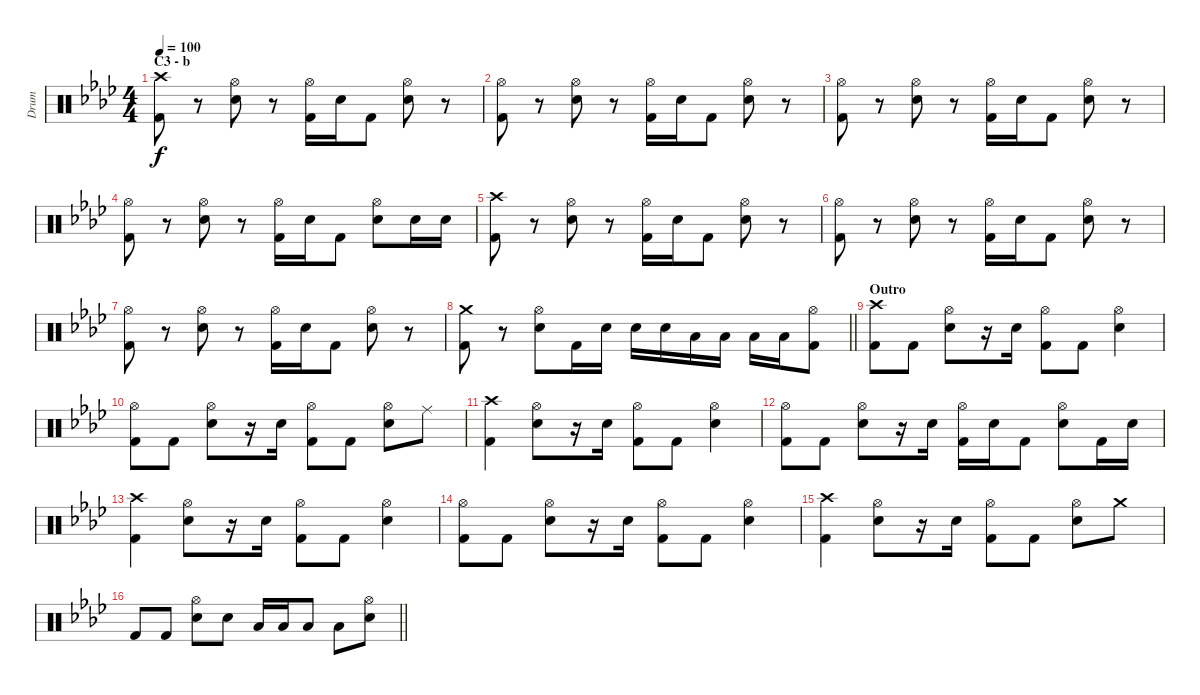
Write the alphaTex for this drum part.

\track ("Drum" "Drum") {instrument percussion}
\staff {score}
\articulation defaults
\ts (4 4)
\section ("" "C3 - b")
\tempo 100
\clef neutral
\ks ab
("Crash high (hit)" "Kick (hit) 2").8{dy f} r.8 ("Hi-Hat (open)" "Snare (hit) 2").8 r.8 ("Hi-Hat (open)" "Kick (hit) 2").16 "Snare (hit) 2".16 "Kick (hit) 2".8 ("Hi-Hat (open)" "Snare (hit) 2").8 r.8 |
("Hi-Hat (open)" "Kick (hit) 2").8 r.8 ("Hi-Hat (open)" "Snare (hit) 2").8 r.8 ("Hi-Hat (open)" "Kick (hit) 2").16 "Snare (hit) 2".16 "Kick (hit) 2".8 ("Hi-Hat (open)" "Snare (hit) 2").8 r.8 |
("Hi-Hat (open)" "Kick (hit) 2").8 r.8 ("Hi-Hat (open)" "Snare (hit) 2").8 r.8 ("Hi-Hat (open)" "Kick (hit) 2").16 "Snare (hit) 2".16 "Kick (hit) 2".8 ("Hi-Hat (open)" "Snare (hit) 2").8 r.8 |
("Hi-Hat (open)" "Kick (hit) 2").8 r.8 ("Hi-Hat (open)" "Snare (hit) 2").8 r.8 ("Hi-Hat (open)" "Kick (hit) 2").16 "Snare (hit) 2".16 "Kick (hit) 2".8 ("Hi-Hat (open)" "Snare (hit) 2").8 "Snare (hit) 2".16 "Snare (hit) 2".16 |
("Crash high (hit)" "Kick (hit) 2").8 r.8 ("Hi-Hat (open)" "Snare (hit) 2").8 r.8 ("Hi-Hat (open)" "Kick (hit) 2").16 "Snare (hit) 2".16 "Kick (hit) 2".8 ("Hi-Hat (open)" "Snare (hit) 2").8 r.8 |
("Hi-Hat (open)" "Kick (hit) 2").8 r.8 ("Hi-Hat (open)" "Snare (hit) 2").8 r.8 ("Hi-Hat (open)" "Kick (hit) 2").16 "Snare (hit) 2".16 "Kick (hit) 2".8 ("Hi-Hat (open)" "Snare (hit) 2").8 r.8 |
("Hi-Hat (open)" "Kick (hit) 2").8 r.8 ("Hi-Hat (open)" "Snare (hit) 2").8 r.8 ("Hi-Hat (open)" "Kick (hit) 2").16 "Snare (hit) 2".16 "Kick (hit) 2".8 ("Hi-Hat (open)" "Snare (hit) 2").8 r.8 |
\barLineRight lightlight
("Crash medium (hit)" "Kick (hit) 2").8 r.8 ("Hi-Hat (open)" "Snare (hit) 2").8 "Kick (hit) 2".16 "Snare (hit) 2".16 "Snare (hit) 2".16 "Snare (hit) 2".16 "Low Tom (hit)".16 "Low Tom (hit)".16 "Low Floor Tom (hit)".16 "Low Floor Tom (hit)".16 ("Hi-Hat (open)" "Kick (hit) 2").8 |
\section ("" "Outro")
("Crash high (hit)" "Kick (hit) 2").8 "Kick (hit) 2".8 ("Hi-Hat (open)" "Snare (hit) 2").8 r.16 "Snare (hit) 2".16 ("Hi-Hat (open)" "Kick (hit) 2").8 "Kick (hit) 2".8 ("Hi-Hat (open)" "Snare (hit) 2").4 |
("Hi-Hat (open)" "Kick (hit) 2").8 "Kick (hit) 2".8 ("Hi-Hat (open)" "Snare (hit) 2").8 r.16 "Snare (hit) 2".16 ("Hi-Hat (open)" "Kick (hit) 2").8 "Kick (hit) 2".8 ("Hi-Hat (open)" "Snare (hit) 2").8 "Ride (middle)".8 |
("Crash high (hit)" "Kick (hit) 2").4 ("Hi-Hat (open)" "Snare (hit) 2").8 r.16 "Snare (hit) 2".16 ("Hi-Hat (open)" "Kick (hit) 2").8 "Kick (hit) 2".8 ("Hi-Hat (open)" "Snare (hit) 2").4 |
("Hi-Hat (open)" "Kick (hit) 2").8 "Kick (hit) 2".8 ("Hi-Hat (open)" "Snare (hit) 2").8 r.16 "Snare (hit) 2".16 ("Hi-Hat (open)" "Kick (hit) 2").16 "Snare (hit) 2".16 "Kick (hit) 2".8 ("Hi-Hat (open)" "Snare (hit) 2").8 "Kick (hit) 2".16 "Snare (hit) 2".16 |
("Crash high (hit)" "Kick (hit) 2").4 ("Hi-Hat (open)" "Snare (hit) 2").8 r.16 "Snare (hit) 2".16 ("Hi-Hat (open)" "Kick (hit) 2").8 "Kick (hit) 2".8 ("Hi-Hat (open)" "Snare (hit) 2").4 |
("Hi-Hat (open)" "Kick (hit) 2").8 "Kick (hit) 2".8 ("Hi-Hat (open)" "Snare (hit) 2").8 r.16 "Snare (hit) 2".16 ("Hi-Hat (open)" "Kick (hit) 2").8 "Kick (hit) 2".8 ("Hi-Hat (open)" "Snare (hit) 2").4 |
("Crash high (hit)" "Kick (hit) 2").4 ("Hi-Hat (open)" "Snare (hit) 2").8 r.16 "Snare (hit) 2".16 ("Hi-Hat (open)" "Kick (hit) 2").8 "Kick (hit) 2".8 ("Hi-Hat (open)" "Snare (hit) 2").8 "Crash medium (hit)".8 |
\barLineRight lightlight "Kick (hit) 2".8 "Kick (hit) 2".8
("Hi-Hat (open)" "Snare (hit) 2").8 "Snare (hit) 2".8 "Low Tom (hit)".16 "Low Tom (hit)".16 "Low Floor Tom (hit)".8 "Low Floor Tom (hit)".8 ("Hi-Hat (open)" "Snare (hit) 2").8
